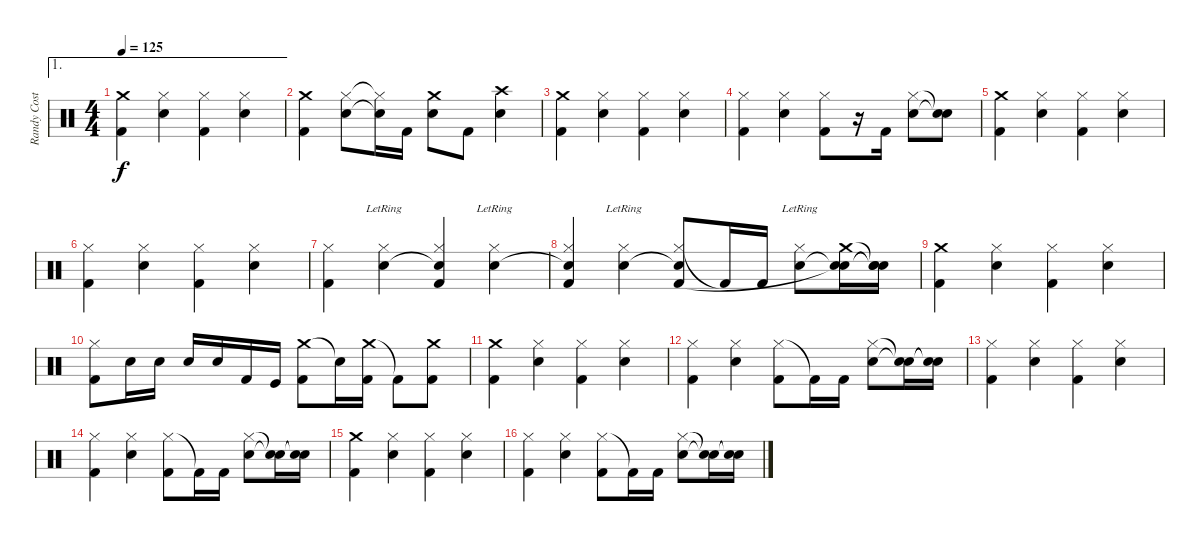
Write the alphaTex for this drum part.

\track ("Randy Costillo" "Randy Cost") {instrument percussion}
\staff {score}
\articulation defaults
\ae 1
\ts (4 4)
\tempo 125
\clef neutral
\ks c
("Crash medium (hit)" "Kick (hit) 2").4{dy f} ("Hi-Hat (closed)" "Snare (hit) 2").4 ("Hi-Hat (closed)" "Kick (hit) 2").4 ("Hi-Hat (closed)" "Snare (hit) 2").4 |
("Crash medium (hit)" "Kick (hit) 2").4 ("Hi-Hat (closed)" "Snare (hit) 2").8 ("Hi-Hat (closed)"{t} "Snare (hit)"{t}).16 "Kick (hit) 2".16 ("Crash medium (hit)" "Snare (hit) 2").8 "Kick (hit) 2".8 ("Crash high (hit)" "Snare (hit) 2").4 |
("Crash medium (hit)" "Kick (hit) 2").4 ("Hi-Hat (closed)" "Snare (hit) 2").4 ("Hi-Hat (closed)" "Kick (hit) 2").4 ("Hi-Hat (closed)" "Snare (hit) 2").4 |
("Hi-Hat (closed)" "Kick (hit) 2").4 ("Hi-Hat (closed)" "Snare (hit) 2").4 ("Hi-Hat (closed)" "Kick (hit) 2").8 r.16 "Kick (hit) 2".16 ("Hi-Hat (closed)" "Snare (hit) 2").8 ("Snare (hit)"{t} "Snare (hit)"{t}).8 |
("Crash medium (hit)" "Kick (hit) 2").4 ("Hi-Hat (closed)" "Snare (hit) 2").4 ("Hi-Hat (closed)" "Kick (hit) 2").4 ("Hi-Hat (closed)" "Snare (hit) 2").4 |
("Hi-Hat (closed)" "Kick (hit) 2").4 ("Hi-Hat (closed)" "Snare (hit) 2").4 ("Hi-Hat (closed)" "Kick (hit) 2").4 ("Hi-Hat (closed)" "Snare (hit) 2").4 |
("Hi-Hat (closed)" "Kick (hit) 2").4 ("Hi-Hat (closed)" "Snare (hit) 2"{lr}).4 ("Hi-Hat (closed)" "Snare (hit)"{t} "Kick (hit) 2").4 ("Hi-Hat (closed)" "Snare (hit) 2"{lr}).4 |
("Hi-Hat (closed)" "Snare (hit)"{t} "Kick (hit) 2").4 ("Hi-Hat (closed)" "Snare (hit) 2"{lr}).4 ("Hi-Hat (closed)" "Snare (hit)"{t} "Kick (hit) 2").8 "Kick (hit) 2"{t}.16 "Kick (hit) 2".16 ("Hi-Hat (closed)" "Snare (hit) 2"{lr}).8 ("Crash medium (hit)" "Snare (hit)"{t} "Snare (hit)"{t}).16 ("Snare (hit)"{t} "Snare (hit)"{t} "Snare (hit)"{t}).16 |
("Crash medium (hit)" "Kick (hit) 2").4 ("Hi-Hat (closed)" "Snare (hit) 2").4 ("Hi-Hat (closed)" "Kick (hit) 2").4 ("Hi-Hat (closed)" "Snare (hit) 2").4 |
("Hi-Hat (closed)" "Kick (hit) 2").8 "Snare (hit) 2".16 "Snare (hit) 2".16 "Snare (hit) 2".16 "Snare (hit) 2".16 "Kick (hit) 2".16 "Kick (hit)".16 ("Crash medium (hit)" "Kick (hit) 2").8 "Snare (hit)"{t}.16 ("Crash medium (hit)" "Kick (hit) 2").16 "Kick (hit) 2"{t}.8 ("Crash medium (hit)" "Kick (hit) 2").8 |
("Crash medium (hit)" "Kick (hit) 2").4 ("Hi-Hat (closed)" "Snare (hit) 2").4 ("Hi-Hat (closed)" "Kick (hit) 2").4 ("Hi-Hat (closed)" "Snare (hit) 2").4 |
("Hi-Hat (closed)" "Kick (hit) 2").4 ("Hi-Hat (closed)" "Snare (hit) 2").4 ("Hi-Hat (closed)" "Kick (hit) 2").8 "Kick (hit) 2"{t}.16 "Kick (hit) 2".16 ("Hi-Hat (closed)" "Snare (hit) 2").8 ("Snare (hit)"{t} "Snare (hit)"{t}).16 ("Snare (hit)"{t} "Snare (hit)"{t}).16 |
("Hi-Hat (closed)" "Kick (hit) 2").4 ("Hi-Hat (closed)" "Snare (hit) 2").4 ("Hi-Hat (closed)" "Kick (hit) 2").4 ("Hi-Hat (closed)" "Snare (hit) 2").4 |
("Hi-Hat (closed)" "Kick (hit) 2").4 ("Hi-Hat (closed)" "Snare (hit) 2").4 ("Hi-Hat (closed)" "Kick (hit) 2").8 "Kick (hit) 2"{t}.16 "Kick (hit) 2".16 ("Hi-Hat (closed)" "Snare (hit) 2").8 ("Snare (hit)"{t} "Snare (hit)"{t}).16 ("Snare (hit)"{t} "Snare (hit)"{t}).16 |
("Crash medium (hit)" "Kick (hit) 2").4 ("Hi-Hat (closed)" "Snare (hit) 2").4 ("Hi-Hat (closed)" "Kick (hit) 2").4 ("Hi-Hat (closed)" "Snare (hit) 2").4 |
("Hi-Hat (closed)" "Kick (hit) 2").4 ("Hi-Hat (closed)" "Snare (hit) 2").4 ("Hi-Hat (closed)" "Kick (hit) 2").8 "Kick (hit) 2"{t}.16 "Kick (hit) 2".16 ("Hi-Hat (closed)" "Snare (hit) 2").8 ("Snare (hit)"{t} "Snare (hit)"{t}).16 ("Snare (hit)"{t} "Snare (hit)"{t}).16
